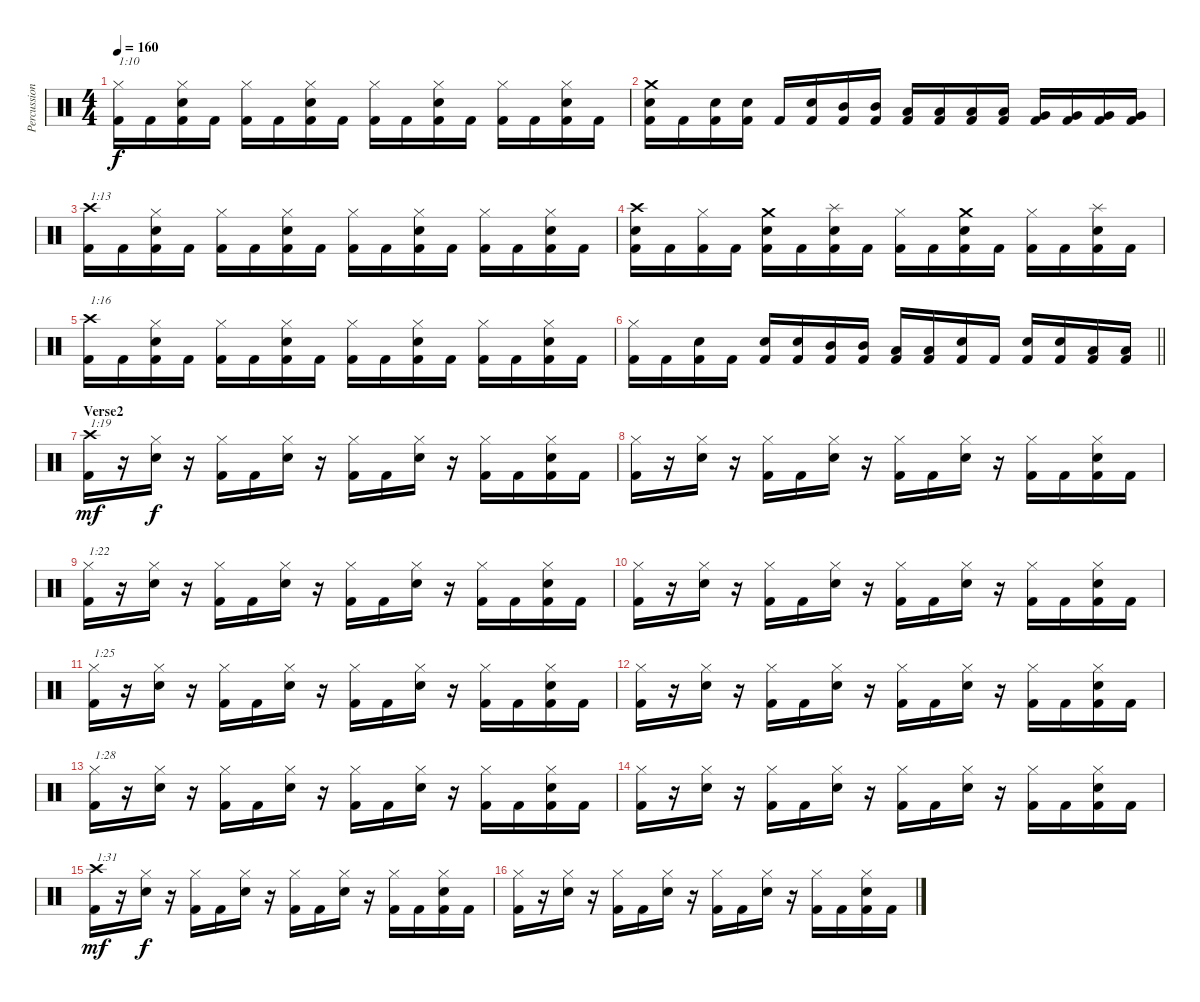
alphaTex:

\track ("Percussion" "Percussion") {instrument percussion}
\staff {score}
\articulation defaults
\ts (4 4)
\tempo 160
\clef neutral
\ks c
("Hi-Hat (closed)" "Kick (hit) 2").16{txt "1:10" dy f} "Kick (hit) 2".16 ("Hi-Hat (closed)" "Electric Snare (hit)" "Kick (hit) 2").16 "Kick (hit) 2".16 ("Hi-Hat (closed)" "Kick (hit) 2").16 "Kick (hit) 2".16 ("Hi-Hat (closed)" "Electric Snare (hit)" "Kick (hit) 2").16 "Kick (hit) 2".16 ("Hi-Hat (closed)" "Kick (hit) 2").16 "Kick (hit) 2".16 ("Hi-Hat (closed)" "Electric Snare (hit)" "Kick (hit) 2").16 "Kick (hit) 2".16 ("Hi-Hat (closed)" "Kick (hit) 2").16 "Kick (hit) 2".16 ("Hi-Hat (closed)" "Electric Snare (hit)" "Kick (hit) 2").16 "Kick (hit) 2".16 |
("Crash medium (hit)" "Electric Snare (hit)" "Kick (hit) 2").16 "Kick (hit) 2".16 ("Electric Snare (hit)" "Kick (hit) 2").16 ("Electric Snare (hit)" "Kick (hit) 2").16 "Kick (hit) 2".16 ("Electric Snare (hit)" "Kick (hit) 2").16 ("Mid Tom (hit)" "Kick (hit) 2").16 ("Mid Tom (hit)" "Kick (hit) 2").16 ("Low Tom (hit)" "Kick (hit) 2").16 ("Low Tom (hit)" "Kick (hit) 2").16 ("Low Tom (hit)" "Kick (hit) 2").16 ("Low Tom (hit)" "Kick (hit) 2").16 ("Very Low Tom (hit)" "Kick (hit) 2").16 ("Very Low Tom (hit)" "Kick (hit) 2").16 ("Very Low Tom (hit)" "Kick (hit) 2").16 ("Very Low Tom (hit)" "Kick (hit) 2").16 |
("Crash high (hit)" "Kick (hit) 2").16{txt "1:13"} "Kick (hit) 2".16 ("Hi-Hat (closed)" "Electric Snare (hit)" "Kick (hit) 2").16 "Kick (hit) 2".16 ("Hi-Hat (closed)" "Kick (hit) 2").16 "Kick (hit) 2".16 ("Hi-Hat (closed)" "Electric Snare (hit)" "Kick (hit) 2").16 "Kick (hit) 2".16 ("Hi-Hat (closed)" "Kick (hit) 2").16 "Kick (hit) 2".16 ("Hi-Hat (closed)" "Electric Snare (hit)" "Kick (hit) 2").16 "Kick (hit) 2".16 ("Hi-Hat (closed)" "Kick (hit) 2").16 "Kick (hit) 2".16 ("Hi-Hat (closed)" "Electric Snare (hit)" "Kick (hit) 2").16 "Kick (hit) 2".16 |
("Crash high (hit)" "Electric Snare (hit)" "Kick (hit) 2").16 "Kick (hit) 2".16 ("Hi-Hat (closed)" "Kick (hit) 2").16 "Kick (hit) 2".16 ("Crash medium (hit)" "Electric Snare (hit)" "Kick (hit) 2").16 "Kick (hit) 2".16 ("Splash (hit)" "Electric Snare (hit)" "Kick (hit) 2").16 "Kick (hit) 2".16 ("Hi-Hat (closed)" "Kick (hit) 2").16 "Kick (hit) 2".16 ("Crash medium (hit)" "Electric Snare (hit)" "Kick (hit) 2").16 "Kick (hit) 2".16 ("Hi-Hat (closed)" "Kick (hit) 2").16 "Kick (hit) 2".16 ("Splash (hit)" "Electric Snare (hit)" "Kick (hit) 2").16 "Kick (hit) 2".16 |
("Crash high (hit)" "Kick (hit) 2").16{txt "1:16"} "Kick (hit) 2".16 ("Hi-Hat (closed)" "Electric Snare (hit)" "Kick (hit) 2").16 "Kick (hit) 2".16 ("Hi-Hat (closed)" "Kick (hit) 2").16 "Kick (hit) 2".16 ("Hi-Hat (closed)" "Electric Snare (hit)" "Kick (hit) 2").16 "Kick (hit) 2".16 ("Hi-Hat (closed)" "Kick (hit) 2").16 "Kick (hit) 2".16 ("Hi-Hat (closed)" "Electric Snare (hit)" "Kick (hit) 2").16 "Kick (hit) 2".16 ("Hi-Hat (closed)" "Kick (hit) 2").16 "Kick (hit) 2".16 ("Hi-Hat (closed)" "Electric Snare (hit)" "Kick (hit) 2").16 "Kick (hit) 2".16 |
\barLineRight lightlight
("Hi-Hat (closed)" "Kick (hit) 2").16 "Kick (hit) 2".16 ("Electric Snare (hit)" "Kick (hit) 2").16 "Kick (hit) 2".16 ("Electric Snare (hit)" "Kick (hit) 2").16 ("Electric Snare (hit)" "Kick (hit) 2").16 ("Mid Tom (hit)" "Kick (hit) 2").16 ("Mid Tom (hit)" "Kick (hit) 2").16 ("Low Tom (hit)" "Kick (hit) 2").16 ("Low Tom (hit)" "Kick (hit) 2").16 ("Electric Snare (hit)" "Kick (hit) 2").16 "Kick (hit) 2".16 ("Electric Snare (hit)" "Kick (hit) 2").16 ("Electric Snare (hit)" "Kick (hit) 2").16 ("Low Tom (hit)" "Kick (hit) 2").16 ("Low Tom (hit)" "Kick (hit) 2").16 |
\section ("" "Verse2")
("Crash high (hit)" "Kick (hit) 2").16{txt "1:19" dy mf} r.16 ("Hi-Hat (closed)" "Electric Snare (hit)").16{dy f} r.16 ("Hi-Hat (closed)" "Kick (hit) 2").16 "Kick (hit) 2".16 ("Hi-Hat (closed)" "Electric Snare (hit)").16 r.16 ("Hi-Hat (closed)" "Kick (hit) 2").16 "Kick (hit) 2".16 ("Hi-Hat (closed)" "Electric Snare (hit)").16 r.16 ("Hi-Hat (closed)" "Kick (hit) 2").16 "Kick (hit) 2".16 ("Hi-Hat (closed)" "Electric Snare (hit)" "Kick (hit) 2").16 "Kick (hit) 2".16 |
("Hi-Hat (closed)" "Kick (hit) 2").16 r.16 ("Hi-Hat (closed)" "Electric Snare (hit)").16 r.16 ("Hi-Hat (closed)" "Kick (hit) 2").16 "Kick (hit) 2".16 ("Hi-Hat (closed)" "Electric Snare (hit)").16 r.16 ("Hi-Hat (closed)" "Kick (hit) 2").16 "Kick (hit) 2".16 ("Hi-Hat (closed)" "Electric Snare (hit)").16 r.16 ("Hi-Hat (closed)" "Kick (hit) 2").16 "Kick (hit) 2".16 ("Hi-Hat (closed)" "Electric Snare (hit)" "Kick (hit) 2").16 "Kick (hit) 2".16 |
("Hi-Hat (closed)" "Kick (hit) 2").16{txt "1:22"} r.16 ("Hi-Hat (closed)" "Electric Snare (hit)").16 r.16 ("Hi-Hat (closed)" "Kick (hit) 2").16 "Kick (hit) 2".16 ("Hi-Hat (closed)" "Electric Snare (hit)").16 r.16 ("Hi-Hat (closed)" "Kick (hit) 2").16 "Kick (hit) 2".16 ("Hi-Hat (closed)" "Electric Snare (hit)").16 r.16 ("Hi-Hat (closed)" "Kick (hit) 2").16 "Kick (hit) 2".16 ("Hi-Hat (closed)" "Electric Snare (hit)" "Kick (hit) 2").16 "Kick (hit) 2".16 |
("Hi-Hat (closed)" "Kick (hit) 2").16 r.16 ("Hi-Hat (closed)" "Electric Snare (hit)").16 r.16 ("Hi-Hat (closed)" "Kick (hit) 2").16 "Kick (hit) 2".16 ("Hi-Hat (closed)" "Electric Snare (hit)").16 r.16 ("Hi-Hat (closed)" "Kick (hit) 2").16 "Kick (hit) 2".16 ("Hi-Hat (closed)" "Electric Snare (hit)").16 r.16 ("Hi-Hat (closed)" "Kick (hit) 2").16 "Kick (hit) 2".16 ("Hi-Hat (closed)" "Electric Snare (hit)" "Kick (hit) 2").16 "Kick (hit) 2".16 |
("Hi-Hat (closed)" "Kick (hit) 2").16{txt "1:25"} r.16 ("Hi-Hat (closed)" "Electric Snare (hit)").16 r.16 ("Hi-Hat (closed)" "Kick (hit) 2").16 "Kick (hit) 2".16 ("Hi-Hat (closed)" "Electric Snare (hit)").16 r.16 ("Hi-Hat (closed)" "Kick (hit) 2").16 "Kick (hit) 2".16 ("Hi-Hat (closed)" "Electric Snare (hit)").16 r.16 ("Hi-Hat (closed)" "Kick (hit) 2").16 "Kick (hit) 2".16 ("Hi-Hat (closed)" "Electric Snare (hit)" "Kick (hit) 2").16 "Kick (hit) 2".16 |
("Hi-Hat (closed)" "Kick (hit) 2").16 r.16 ("Hi-Hat (closed)" "Electric Snare (hit)").16 r.16 ("Hi-Hat (closed)" "Kick (hit) 2").16 "Kick (hit) 2".16 ("Hi-Hat (closed)" "Electric Snare (hit)").16 r.16 ("Hi-Hat (closed)" "Kick (hit) 2").16 "Kick (hit) 2".16 ("Hi-Hat (closed)" "Electric Snare (hit)").16 r.16 ("Hi-Hat (closed)" "Kick (hit) 2").16 "Kick (hit) 2".16 ("Hi-Hat (closed)" "Electric Snare (hit)" "Kick (hit) 2").16 "Kick (hit) 2".16 |
("Hi-Hat (closed)" "Kick (hit) 2").16{txt "1:28"} r.16 ("Hi-Hat (closed)" "Electric Snare (hit)").16 r.16 ("Hi-Hat (closed)" "Kick (hit) 2").16 "Kick (hit) 2".16 ("Hi-Hat (closed)" "Electric Snare (hit)").16 r.16 ("Hi-Hat (closed)" "Kick (hit) 2").16 "Kick (hit) 2".16 ("Hi-Hat (closed)" "Electric Snare (hit)").16 r.16 ("Hi-Hat (closed)" "Kick (hit) 2").16 "Kick (hit) 2".16 ("Hi-Hat (closed)" "Electric Snare (hit)" "Kick (hit) 2").16 "Kick (hit) 2".16 |
("Hi-Hat (closed)" "Kick (hit) 2").16 r.16 ("Hi-Hat (closed)" "Electric Snare (hit)").16 r.16 ("Hi-Hat (closed)" "Kick (hit) 2").16 "Kick (hit) 2".16 ("Hi-Hat (closed)" "Electric Snare (hit)").16 r.16 ("Hi-Hat (closed)" "Kick (hit) 2").16 "Kick (hit) 2".16 ("Hi-Hat (closed)" "Electric Snare (hit)").16 r.16 ("Hi-Hat (closed)" "Kick (hit) 2").16 "Kick (hit) 2".16 ("Hi-Hat (closed)" "Electric Snare (hit)" "Kick (hit) 2").16 "Kick (hit) 2".16 |
("Crash high (hit)" "Kick (hit) 2").16{txt "1:31" dy mf} r.16 ("Hi-Hat (closed)" "Electric Snare (hit)").16{dy f} r.16 ("Hi-Hat (closed)" "Kick (hit) 2").16 "Kick (hit) 2".16 ("Hi-Hat (closed)" "Electric Snare (hit)").16 r.16 ("Hi-Hat (closed)" "Kick (hit) 2").16 "Kick (hit) 2".16 ("Hi-Hat (closed)" "Electric Snare (hit)").16 r.16 ("Hi-Hat (closed)" "Kick (hit) 2").16 "Kick (hit) 2".16 ("Hi-Hat (closed)" "Electric Snare (hit)" "Kick (hit) 2").16 "Kick (hit) 2".16 |
("Hi-Hat (closed)" "Kick (hit) 2").16 r.16 ("Hi-Hat (closed)" "Electric Snare (hit)").16 r.16 ("Hi-Hat (closed)" "Kick (hit) 2").16 "Kick (hit) 2".16 ("Hi-Hat (closed)" "Electric Snare (hit)").16 r.16 ("Hi-Hat (closed)" "Kick (hit) 2").16 "Kick (hit) 2".16 ("Hi-Hat (closed)" "Electric Snare (hit)").16 r.16 ("Hi-Hat (closed)" "Kick (hit) 2").16 "Kick (hit) 2".16 ("Hi-Hat (closed)" "Electric Snare (hit)" "Kick (hit) 2").16 "Kick (hit) 2".16
